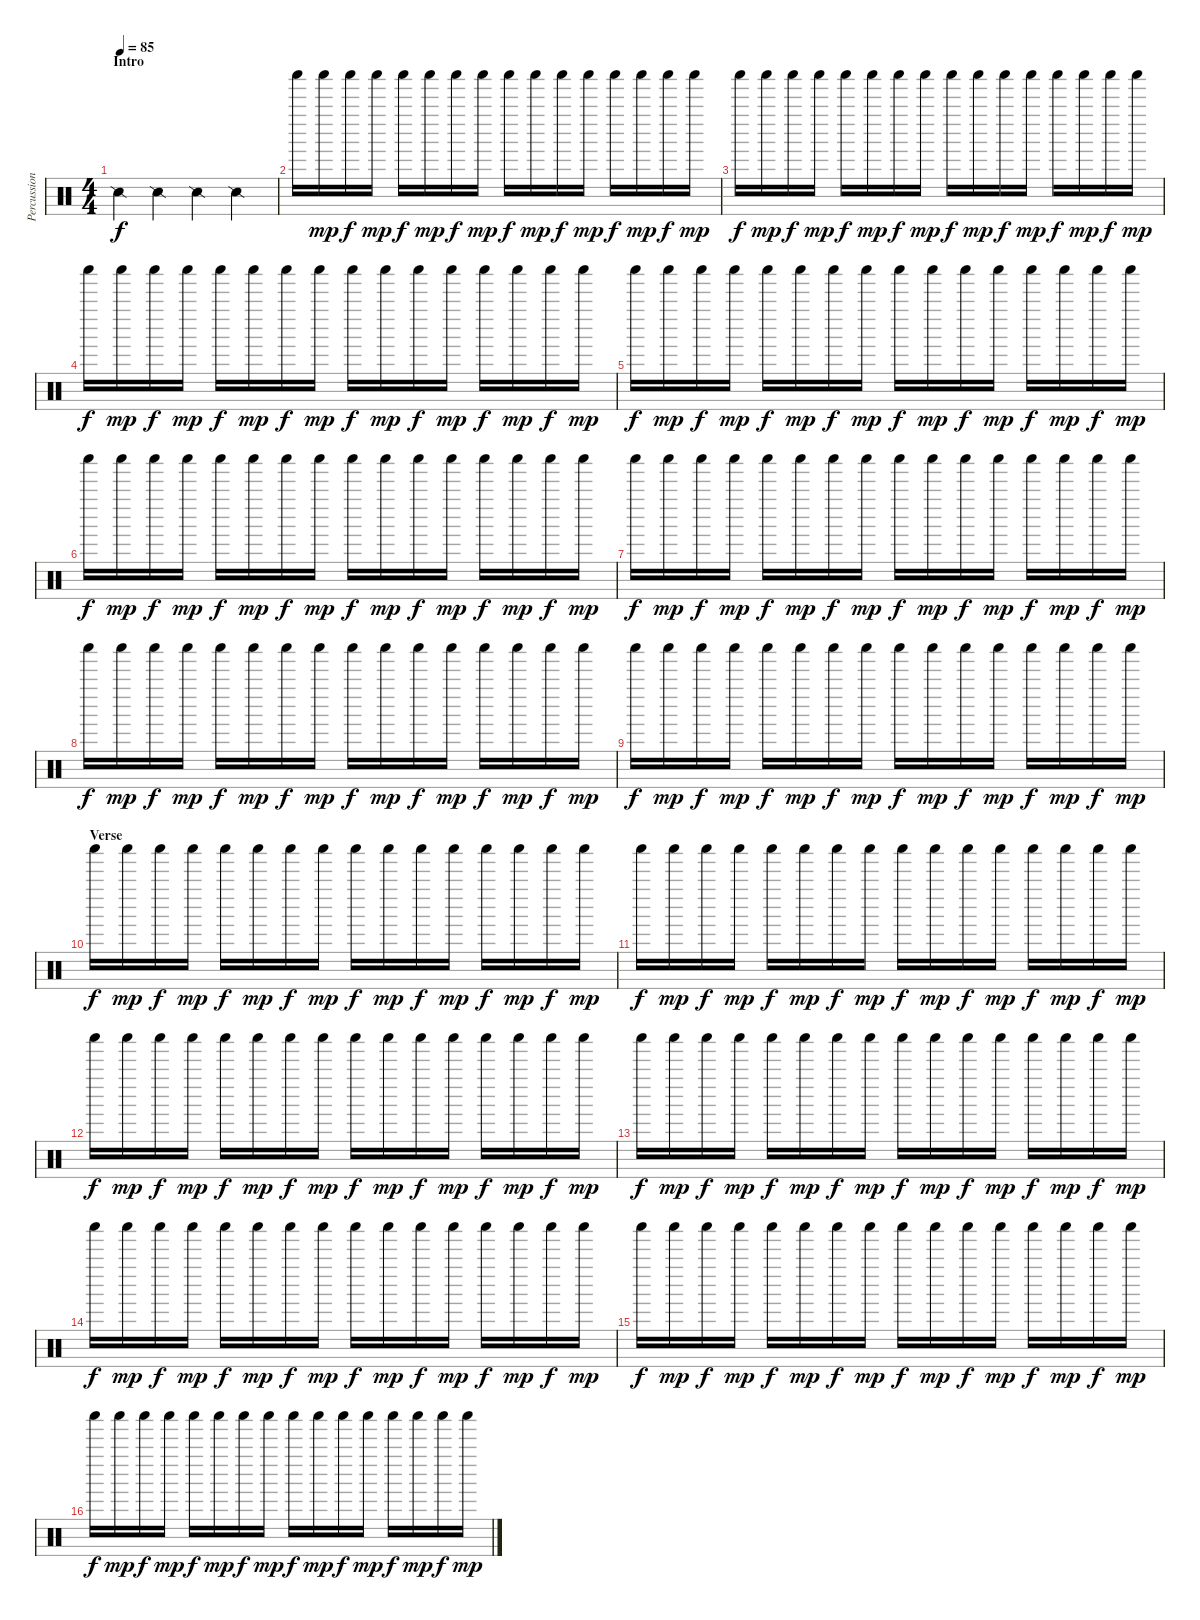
\track ("Percussion" "Percussion") {instrument percussion}
\staff {score}
\articulation defaults
\ts (4 4)
\section ("" "Intro")
\tempo 85
\clef neutral
\ks c "Snare (side stick) 2".4{dy f volume 13} "Snare (side stick) 2".4 "Snare (side stick) 2".4 "Snare (side stick) 2".4
|
"Shaker (hit)".16{volume 8} "Shaker (hit)".16{dy mp} "Shaker (hit)".16{dy f} "Shaker (hit)".16{dy mp} "Shaker (hit)".16{dy f} "Shaker (hit)".16{dy mp} "Shaker (hit)".16{dy f} "Shaker (hit)".16{dy mp} "Shaker (hit)".16{dy f} "Shaker (hit)".16{dy mp} "Shaker (hit)".16{dy f} "Shaker (hit)".16{dy mp} "Shaker (hit)".16{dy f} "Shaker (hit)".16{dy mp} "Shaker (hit)".16{dy f} "Shaker (hit)".16{dy mp} |
"Shaker (hit)".16{dy f} "Shaker (hit)".16{dy mp} "Shaker (hit)".16{dy f} "Shaker (hit)".16{dy mp} "Shaker (hit)".16{dy f} "Shaker (hit)".16{dy mp} "Shaker (hit)".16{dy f} "Shaker (hit)".16{dy mp} "Shaker (hit)".16{dy f} "Shaker (hit)".16{dy mp} "Shaker (hit)".16{dy f} "Shaker (hit)".16{dy mp} "Shaker (hit)".16{dy f} "Shaker (hit)".16{dy mp} "Shaker (hit)".16{dy f} "Shaker (hit)".16{dy mp} |
"Shaker (hit)".16{dy f} "Shaker (hit)".16{dy mp} "Shaker (hit)".16{dy f} "Shaker (hit)".16{dy mp} "Shaker (hit)".16{dy f} "Shaker (hit)".16{dy mp} "Shaker (hit)".16{dy f} "Shaker (hit)".16{dy mp} "Shaker (hit)".16{dy f} "Shaker (hit)".16{dy mp} "Shaker (hit)".16{dy f} "Shaker (hit)".16{dy mp} "Shaker (hit)".16{dy f} "Shaker (hit)".16{dy mp} "Shaker (hit)".16{dy f} "Shaker (hit)".16{dy mp} |
"Shaker (hit)".16{dy f} "Shaker (hit)".16{dy mp} "Shaker (hit)".16{dy f} "Shaker (hit)".16{dy mp} "Shaker (hit)".16{dy f} "Shaker (hit)".16{dy mp} "Shaker (hit)".16{dy f} "Shaker (hit)".16{dy mp} "Shaker (hit)".16{dy f} "Shaker (hit)".16{dy mp} "Shaker (hit)".16{dy f} "Shaker (hit)".16{dy mp} "Shaker (hit)".16{dy f} "Shaker (hit)".16{dy mp} "Shaker (hit)".16{dy f} "Shaker (hit)".16{dy mp} |
"Shaker (hit)".16{dy f} "Shaker (hit)".16{dy mp} "Shaker (hit)".16{dy f} "Shaker (hit)".16{dy mp} "Shaker (hit)".16{dy f} "Shaker (hit)".16{dy mp} "Shaker (hit)".16{dy f} "Shaker (hit)".16{dy mp} "Shaker (hit)".16{dy f} "Shaker (hit)".16{dy mp} "Shaker (hit)".16{dy f} "Shaker (hit)".16{dy mp} "Shaker (hit)".16{dy f} "Shaker (hit)".16{dy mp} "Shaker (hit)".16{dy f} "Shaker (hit)".16{dy mp} |
"Shaker (hit)".16{dy f} "Shaker (hit)".16{dy mp} "Shaker (hit)".16{dy f} "Shaker (hit)".16{dy mp} "Shaker (hit)".16{dy f} "Shaker (hit)".16{dy mp} "Shaker (hit)".16{dy f} "Shaker (hit)".16{dy mp} "Shaker (hit)".16{dy f} "Shaker (hit)".16{dy mp} "Shaker (hit)".16{dy f} "Shaker (hit)".16{dy mp} "Shaker (hit)".16{dy f} "Shaker (hit)".16{dy mp} "Shaker (hit)".16{dy f} "Shaker (hit)".16{dy mp} |
"Shaker (hit)".16{dy f} "Shaker (hit)".16{dy mp} "Shaker (hit)".16{dy f} "Shaker (hit)".16{dy mp} "Shaker (hit)".16{dy f} "Shaker (hit)".16{dy mp} "Shaker (hit)".16{dy f} "Shaker (hit)".16{dy mp} "Shaker (hit)".16{dy f} "Shaker (hit)".16{dy mp} "Shaker (hit)".16{dy f} "Shaker (hit)".16{dy mp} "Shaker (hit)".16{dy f} "Shaker (hit)".16{dy mp} "Shaker (hit)".16{dy f} "Shaker (hit)".16{dy mp} |
"Shaker (hit)".16{dy f} "Shaker (hit)".16{dy mp} "Shaker (hit)".16{dy f} "Shaker (hit)".16{dy mp} "Shaker (hit)".16{dy f} "Shaker (hit)".16{dy mp} "Shaker (hit)".16{dy f} "Shaker (hit)".16{dy mp} "Shaker (hit)".16{dy f} "Shaker (hit)".16{dy mp} "Shaker (hit)".16{dy f} "Shaker (hit)".16{dy mp} "Shaker (hit)".16{dy f} "Shaker (hit)".16{dy mp} "Shaker (hit)".16{dy f} "Shaker (hit)".16{dy mp} |
\section ("" "Verse")
"Shaker (hit)".16{dy f} "Shaker (hit)".16{dy mp} "Shaker (hit)".16{dy f} "Shaker (hit)".16{dy mp} "Shaker (hit)".16{dy f} "Shaker (hit)".16{dy mp} "Shaker (hit)".16{dy f} "Shaker (hit)".16{dy mp} "Shaker (hit)".16{dy f} "Shaker (hit)".16{dy mp} "Shaker (hit)".16{dy f} "Shaker (hit)".16{dy mp} "Shaker (hit)".16{dy f} "Shaker (hit)".16{dy mp} "Shaker (hit)".16{dy f} "Shaker (hit)".16{dy mp} |
"Shaker (hit)".16{dy f} "Shaker (hit)".16{dy mp} "Shaker (hit)".16{dy f} "Shaker (hit)".16{dy mp} "Shaker (hit)".16{dy f} "Shaker (hit)".16{dy mp} "Shaker (hit)".16{dy f} "Shaker (hit)".16{dy mp} "Shaker (hit)".16{dy f} "Shaker (hit)".16{dy mp} "Shaker (hit)".16{dy f} "Shaker (hit)".16{dy mp} "Shaker (hit)".16{dy f} "Shaker (hit)".16{dy mp} "Shaker (hit)".16{dy f} "Shaker (hit)".16{dy mp} |
"Shaker (hit)".16{dy f} "Shaker (hit)".16{dy mp} "Shaker (hit)".16{dy f} "Shaker (hit)".16{dy mp} "Shaker (hit)".16{dy f} "Shaker (hit)".16{dy mp} "Shaker (hit)".16{dy f} "Shaker (hit)".16{dy mp} "Shaker (hit)".16{dy f} "Shaker (hit)".16{dy mp} "Shaker (hit)".16{dy f} "Shaker (hit)".16{dy mp} "Shaker (hit)".16{dy f} "Shaker (hit)".16{dy mp} "Shaker (hit)".16{dy f} "Shaker (hit)".16{dy mp} |
"Shaker (hit)".16{dy f} "Shaker (hit)".16{dy mp} "Shaker (hit)".16{dy f} "Shaker (hit)".16{dy mp} "Shaker (hit)".16{dy f} "Shaker (hit)".16{dy mp} "Shaker (hit)".16{dy f} "Shaker (hit)".16{dy mp} "Shaker (hit)".16{dy f} "Shaker (hit)".16{dy mp} "Shaker (hit)".16{dy f} "Shaker (hit)".16{dy mp} "Shaker (hit)".16{dy f} "Shaker (hit)".16{dy mp} "Shaker (hit)".16{dy f} "Shaker (hit)".16{dy mp} |
"Shaker (hit)".16{dy f} "Shaker (hit)".16{dy mp} "Shaker (hit)".16{dy f} "Shaker (hit)".16{dy mp} "Shaker (hit)".16{dy f} "Shaker (hit)".16{dy mp} "Shaker (hit)".16{dy f} "Shaker (hit)".16{dy mp} "Shaker (hit)".16{dy f} "Shaker (hit)".16{dy mp} "Shaker (hit)".16{dy f} "Shaker (hit)".16{dy mp} "Shaker (hit)".16{dy f} "Shaker (hit)".16{dy mp} "Shaker (hit)".16{dy f} "Shaker (hit)".16{dy mp} |
"Shaker (hit)".16{dy f} "Shaker (hit)".16{dy mp} "Shaker (hit)".16{dy f} "Shaker (hit)".16{dy mp} "Shaker (hit)".16{dy f} "Shaker (hit)".16{dy mp} "Shaker (hit)".16{dy f} "Shaker (hit)".16{dy mp} "Shaker (hit)".16{dy f} "Shaker (hit)".16{dy mp} "Shaker (hit)".16{dy f} "Shaker (hit)".16{dy mp} "Shaker (hit)".16{dy f} "Shaker (hit)".16{dy mp} "Shaker (hit)".16{dy f} "Shaker (hit)".16{dy mp} |
"Shaker (hit)".16{dy f} "Shaker (hit)".16{dy mp} "Shaker (hit)".16{dy f} "Shaker (hit)".16{dy mp} "Shaker (hit)".16{dy f} "Shaker (hit)".16{dy mp} "Shaker (hit)".16{dy f} "Shaker (hit)".16{dy mp} "Shaker (hit)".16{dy f} "Shaker (hit)".16{dy mp} "Shaker (hit)".16{dy f} "Shaker (hit)".16{dy mp} "Shaker (hit)".16{dy f} "Shaker (hit)".16{dy mp} "Shaker (hit)".16{dy f} "Shaker (hit)".16{dy mp}
